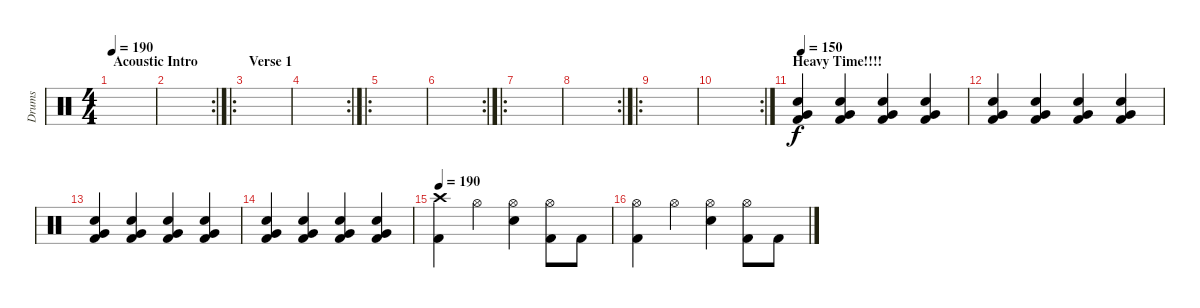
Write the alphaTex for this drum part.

\track ("Drums" "Drums") {instrument percussion}
\staff {score}
\articulation defaults
\ts (4 4)
\section ("" "Acoustic Intro")
\tempo 190
\tempo 100
\tempo 190
\clef neutral
\ks c
|
\rc 2
|
\ro
\section ("" "Verse 1")
|
\rc 2
|
\ro
|
\rc 2
|
\ro
|
\rc 2
|
\ro
|
\rc 2
|
\section ("" "Heavy Time!!!!")
\tempo 150
("Electric Snare (hit)" "Kick (hit) 2" "Very Low Tom (hit)").4 ("Electric Snare (hit)" "Kick (hit) 2" "Very Low Tom (hit)").4 ("Electric Snare (hit)" "Kick (hit) 2" "Very Low Tom (hit)").4 ("Electric Snare (hit)" "Kick (hit) 2" "Very Low Tom (hit)").4 |
("Electric Snare (hit)" "Kick (hit) 2" "Very Low Tom (hit)").4 ("Electric Snare (hit)" "Kick (hit) 2" "Very Low Tom (hit)").4 ("Electric Snare (hit)" "Kick (hit) 2" "Very Low Tom (hit)").4 ("Electric Snare (hit)" "Kick (hit) 2" "Very Low Tom (hit)").4 |
("Electric Snare (hit)" "Kick (hit) 2" "Very Low Tom (hit)").4 ("Electric Snare (hit)" "Kick (hit) 2" "Very Low Tom (hit)").4 ("Electric Snare (hit)" "Kick (hit) 2" "Very Low Tom (hit)").4 ("Electric Snare (hit)" "Kick (hit) 2" "Very Low Tom (hit)").4 |
("Electric Snare (hit)" "Kick (hit) 2" "Very Low Tom (hit)").4 ("Electric Snare (hit)" "Kick (hit) 2" "Very Low Tom (hit)").4 ("Electric Snare (hit)" "Kick (hit) 2" "Very Low Tom (hit)").4 ("Electric Snare (hit)" "Kick (hit) 2" "Very Low Tom (hit)").4 |
\tempo 190
("Kick (hit) 2" "Crash high (hit)").4 "Hi-Hat (open)".4 ("Hi-Hat (open)" "Electric Snare (hit)").4 ("Kick (hit) 2" "Hi-Hat (open)").8 "Kick (hit) 2".8 |
("Kick (hit) 2" "Hi-Hat (open)").4 "Hi-Hat (open)".4 ("Hi-Hat (open)" "Electric Snare (hit)").4 ("Kick (hit) 2" "Hi-Hat (open)").8 "Kick (hit) 2".8
